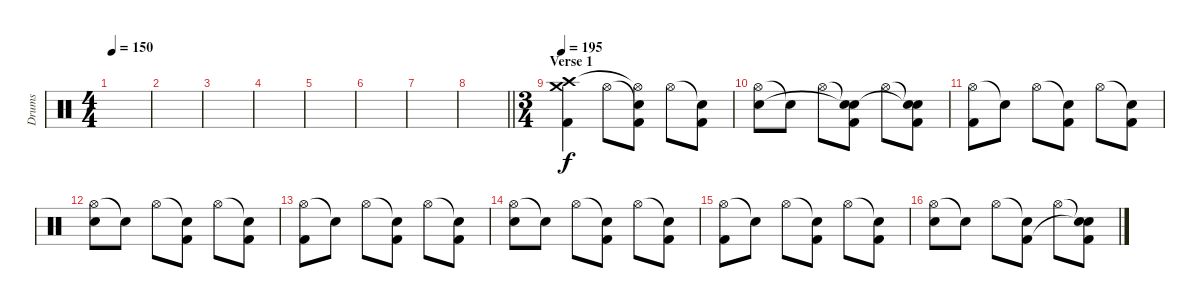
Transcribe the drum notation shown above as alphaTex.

\track ("Drums" "Drums") {instrument percussion}
\staff {score}
\articulation defaults
\ts (4 4)
\tempo 150
\clef neutral
\ks c
|
|
|
|
|
|
|
\barLineRight lightlight
|
\ts (3 4)
\section ("" "Verse 1")
\tempo 195
("Crash medium (hit)" "Crash high (hit)" "Kick (hit) 2").4 "Hi-Hat (open)".8{dy f} ("Snare (hit)"{t} "Hi-Hat (open)"{t} "Kick (hit) 2").8 "Hi-Hat (open)".8 ("Snare (hit)"{t} "Kick (hit) 2").8 |
("Hi-Hat (open)" "Electric Snare (hit)").8 "Snare (hit)"{t}.8 "Hi-Hat (open)".8 ("Snare (hit)"{t} "Snare (hit)"{t} "Kick (hit) 2").8 "Hi-Hat (open)".8 ("Snare (hit)"{t} "Snare (hit)"{t} "Kick (hit) 2").8 |
("Hi-Hat (open)" "Kick (hit) 2").8 "Snare (hit)"{t}.8 "Hi-Hat (open)".8 ("Snare (hit)"{t} "Kick (hit) 2").8 "Hi-Hat (open)".8 ("Snare (hit)"{t} "Kick (hit) 2").8 |
("Hi-Hat (open)" "Electric Snare (hit)").8 "Snare (hit)"{t}.8 "Hi-Hat (open)".8 ("Snare (hit)"{t} "Kick (hit) 2").8 "Hi-Hat (open)".8 ("Snare (hit)"{t} "Kick (hit) 2").8 |
("Hi-Hat (open)" "Kick (hit) 2").8 "Snare (hit)"{t}.8 "Hi-Hat (open)".8 ("Snare (hit)"{t} "Kick (hit) 2").8 "Hi-Hat (open)".8 ("Snare (hit)"{t} "Kick (hit) 2").8 |
("Hi-Hat (open)" "Electric Snare (hit)").8 "Snare (hit)"{t}.8 "Hi-Hat (open)".8 ("Snare (hit)"{t} "Kick (hit) 2").8 "Hi-Hat (open)".8 ("Snare (hit)"{t} "Kick (hit) 2").8 |
("Hi-Hat (open)" "Kick (hit) 2").8 "Snare (hit)"{t}.8 "Hi-Hat (open)".8 ("Snare (hit)"{t} "Kick (hit) 2").8 "Hi-Hat (open)".8 ("Snare (hit)"{t} "Kick (hit) 2").8 |
("Hi-Hat (open)" "Electric Snare (hit)").8 "Snare (hit)"{t}.8 "Hi-Hat (open)".8 ("Snare (hit)"{t} "Kick (hit) 2").8 "Hi-Hat (open)".8 ("Snare (hit)"{t} "Snare (hit)"{t} "Kick (hit) 2").8
